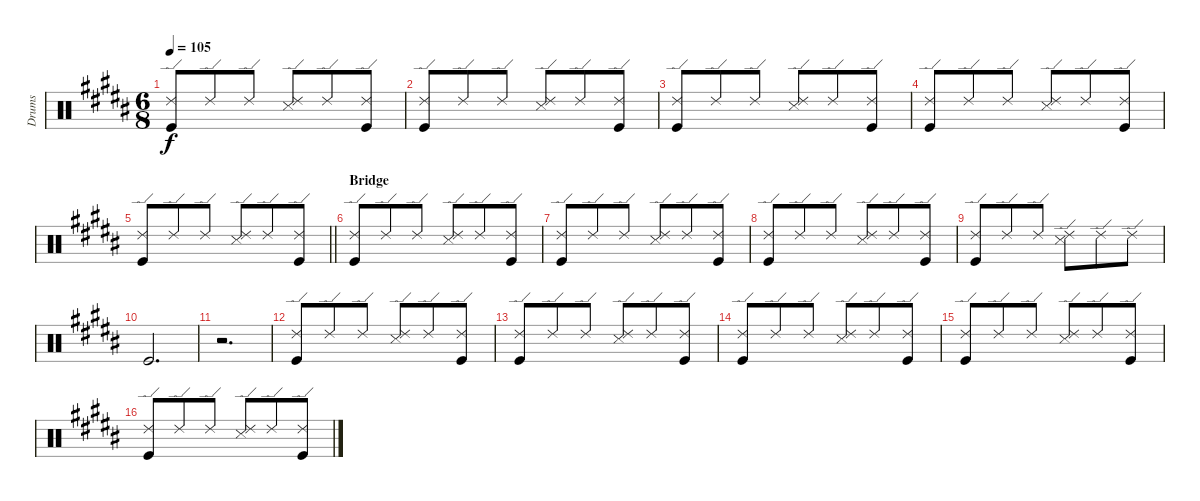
\track ("Drums" "Drums") {instrument percussion}
\staff {score}
\articulation defaults
\ts (6 8)
\tempo 105
\clef neutral
\ks b
("Ride (edge) 2" "Kick (hit)").8{dy f} "Ride (edge) 2".8 "Ride (edge) 2".8 ("Ride (edge) 2" "Snare (side stick) 3").8 "Ride (edge) 2".8 ("Ride (edge) 2" "Kick (hit)").8 |
("Ride (edge) 2" "Kick (hit)").8 "Ride (edge) 2".8 "Ride (edge) 2".8 ("Ride (edge) 2" "Snare (side stick) 3").8 "Ride (edge) 2".8 ("Ride (edge) 2" "Kick (hit)").8 |
("Ride (edge) 2" "Kick (hit)").8 "Ride (edge) 2".8 "Ride (edge) 2".8 ("Ride (edge) 2" "Snare (side stick) 3").8 "Ride (edge) 2".8 ("Ride (edge) 2" "Kick (hit)").8 |
("Ride (edge) 2" "Kick (hit)").8 "Ride (edge) 2".8 "Ride (edge) 2".8 ("Ride (edge) 2" "Snare (side stick) 3").8 "Ride (edge) 2".8 ("Ride (edge) 2" "Kick (hit)").8 |
\barLineRight lightlight
("Ride (edge) 2" "Kick (hit)").8 "Ride (edge) 2".8 "Ride (edge) 2".8 ("Ride (edge) 2" "Snare (side stick) 3").8 "Ride (edge) 2".8 ("Ride (edge) 2" "Kick (hit)").8 |
\section ("" "Bridge")
("Ride (edge) 2" "Kick (hit)").8 "Ride (edge) 2".8 "Ride (edge) 2".8 ("Ride (edge) 2" "Snare (side stick) 3").8 "Ride (edge) 2".8 ("Ride (edge) 2" "Kick (hit)").8 |
("Ride (edge) 2" "Kick (hit)").8 "Ride (edge) 2".8 "Ride (edge) 2".8 ("Ride (edge) 2" "Snare (side stick) 3").8 "Ride (edge) 2".8 ("Ride (edge) 2" "Kick (hit)").8 |
("Ride (edge) 2" "Kick (hit)").8 "Ride (edge) 2".8 "Ride (edge) 2".8 ("Ride (edge) 2" "Snare (side stick) 3").8 "Ride (edge) 2".8 ("Ride (edge) 2" "Kick (hit)").8 |
("Ride (edge) 2" "Kick (hit)").8 "Ride (edge) 2".8 "Ride (edge) 2".8 ("Ride (edge) 2" "Snare (side stick) 3").8 "Ride (edge) 2".8 "Ride (edge) 2".8 |
"Kick (hit)".2{d} |
r.2{d} |
("Ride (edge) 2" "Kick (hit)").8 "Ride (edge) 2".8 "Ride (edge) 2".8 ("Ride (edge) 2" "Snare (side stick) 3").8 "Ride (edge) 2".8 ("Ride (edge) 2" "Kick (hit)").8 |
("Ride (edge) 2" "Kick (hit)").8 "Ride (edge) 2".8 "Ride (edge) 2".8 ("Ride (edge) 2" "Snare (side stick) 3").8 "Ride (edge) 2".8 ("Ride (edge) 2" "Kick (hit)").8 |
("Ride (edge) 2" "Kick (hit)").8 "Ride (edge) 2".8 "Ride (edge) 2".8 ("Ride (edge) 2" "Snare (side stick) 3").8 "Ride (edge) 2".8 ("Ride (edge) 2" "Kick (hit)").8 |
("Ride (edge) 2" "Kick (hit)").8 "Ride (edge) 2".8 "Ride (edge) 2".8 ("Ride (edge) 2" "Snare (side stick) 3").8 "Ride (edge) 2".8 ("Ride (edge) 2" "Kick (hit)").8 |
("Ride (edge) 2" "Kick (hit)").8 "Ride (edge) 2".8 "Ride (edge) 2".8 ("Ride (edge) 2" "Snare (side stick) 3").8 "Ride (edge) 2".8 ("Ride (edge) 2" "Kick (hit)").8
